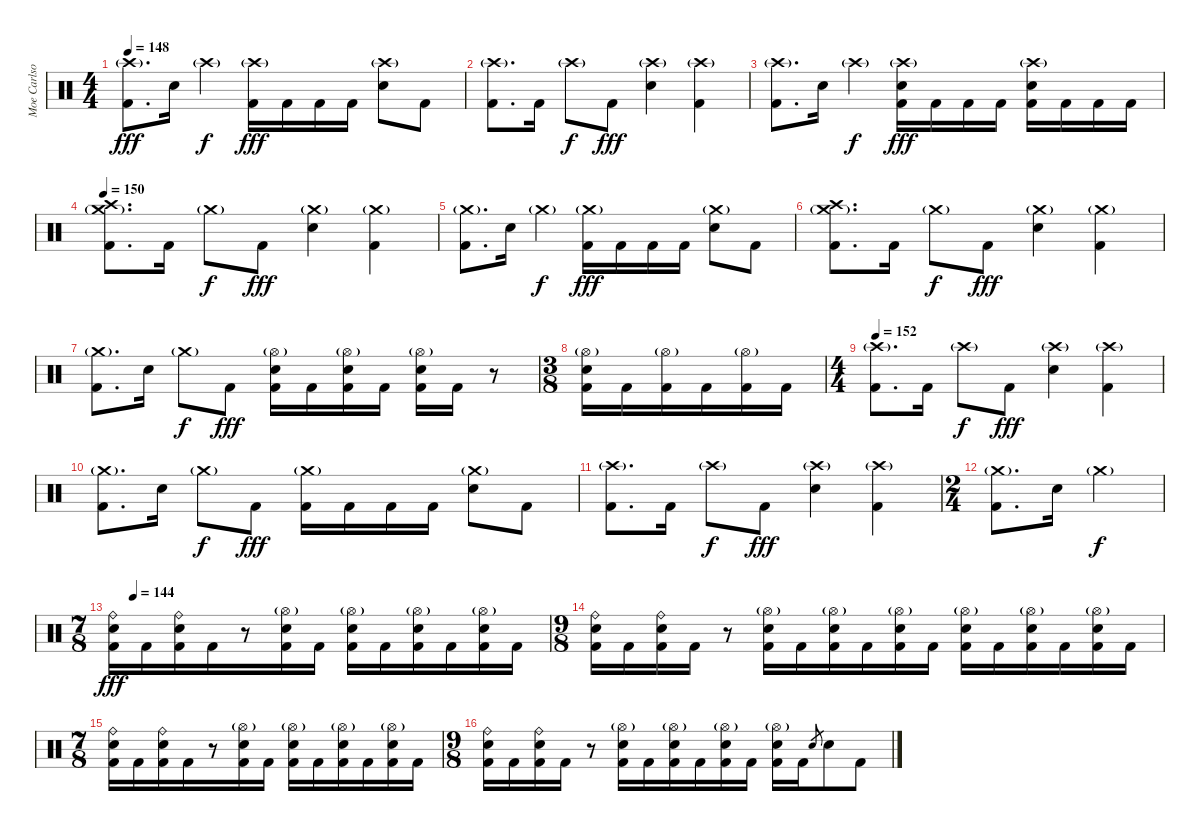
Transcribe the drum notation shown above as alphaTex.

\track ("Moe Carlson - Percussion" "Moe Carlso") {instrument percussion}
\staff {score}
\articulation defaults
\ts (4 4)
\tempo 148
\clef neutral
\ks c
("Crash high (hit)"{g} "Kick (hit) 2").8{d dy fff} "Electric Snare (hit)".16 "Crash high (hit)"{g}.4{dy f} ("Crash high (hit)"{g} "Kick (hit) 2").16{dy fff} "Kick (hit) 2".16 "Kick (hit) 2".16 "Kick (hit) 2".16 ("Crash high (hit)"{g} "Electric Snare (hit)").8 "Kick (hit) 2".8 |
("Crash high (hit)"{g} "Kick (hit) 2").8{d} "Kick (hit) 2".16 "Crash high (hit)"{g}.8{dy f} "Kick (hit) 2".8{dy fff} ("Crash high (hit)"{g} "Electric Snare (hit)").4 ("Crash high (hit)"{g} "Kick (hit) 2").4 |
("Crash high (hit)"{g} "Kick (hit) 2").8{d} "Electric Snare (hit)".16 "Crash high (hit)"{g}.4{dy f} ("Crash high (hit)"{g} "Electric Snare (hit)" "Kick (hit) 2").16{dy fff} "Kick (hit) 2".16 "Kick (hit) 2".16 "Kick (hit) 2".16 ("Crash high (hit)"{g} "Electric Snare (hit)" "Kick (hit) 2").16 "Kick (hit) 2".16 "Kick (hit) 2".16 "Kick (hit) 2".16 |
\tempo 150
("Crash medium (hit)"{g} "Crash high (hit)" "Kick (hit) 2").8{d} "Kick (hit) 2".16 "Crash medium (hit)"{g}.8{dy f} "Kick (hit) 2".8{dy fff} ("Crash medium (hit)"{g} "Electric Snare (hit)").4 ("Crash medium (hit)"{g} "Kick (hit) 2").4 |
("Crash medium (hit)"{g} "Kick (hit) 2").8{d} "Electric Snare (hit)".16 "Crash medium (hit)"{g}.4{dy f} ("Crash medium (hit)"{g} "Kick (hit) 2").16{dy fff} "Kick (hit) 2".16 "Kick (hit) 2".16 "Kick (hit) 2".16 ("Crash medium (hit)"{g} "Electric Snare (hit)").8 "Kick (hit) 2".8 |
("Crash medium (hit)"{g} "Crash high (hit)" "Kick (hit) 2").8{d} "Kick (hit) 2".16 "Crash medium (hit)"{g}.8{dy f} "Kick (hit) 2".8{dy fff} ("Crash medium (hit)"{g} "Electric Snare (hit)").4 ("Crash medium (hit)"{g} "Kick (hit) 2").4 |
("Crash medium (hit)"{g} "Kick (hit) 2").8{d} "Electric Snare (hit)".16 "Crash medium (hit)"{g}.8{dy f} "Kick (hit) 2".8{dy fff} ("Hi-Hat (open)"{g} "Electric Snare (hit)" "Kick (hit) 2").16 "Kick (hit) 2".16 ("Hi-Hat (open)"{g} "Electric Snare (hit)" "Kick (hit) 2").16 "Kick (hit) 2".16 ("Hi-Hat (open)"{g} "Electric Snare (hit)" "Kick (hit) 2").16 "Kick (hit) 2".16 r.8 |
\ts (3 8)
("Hi-Hat (open)"{g} "Electric Snare (hit)" "Kick (hit) 2").16 "Kick (hit) 2".16 ("Hi-Hat (open)"{g} "Kick (hit) 2").16 "Kick (hit) 2".16 ("Hi-Hat (open)"{g} "Kick (hit) 2").16 "Kick (hit) 2".16 |
\ts (4 4)
\tempo 152
("Crash high (hit)"{g} "Kick (hit) 2").8{d} "Kick (hit) 2".16 "Crash high (hit)"{g}.8{dy f} "Kick (hit) 2".8{dy fff} ("Crash high (hit)"{g} "Electric Snare (hit)").4 ("Crash high (hit)"{g} "Kick (hit) 2").4 |
("Crash medium (hit)"{g} "Kick (hit) 2").8{d} "Electric Snare (hit)".16 "Crash medium (hit)"{g}.8{dy f} "Kick (hit) 2".8{dy fff} ("Crash medium (hit)"{g} "Kick (hit) 2").16 "Kick (hit) 2".16 "Kick (hit) 2".16 "Kick (hit) 2".16 ("Crash medium (hit)"{g} "Electric Snare (hit)").8 "Kick (hit) 2".8 |
("Crash high (hit)"{g} "Kick (hit) 2").8{d} "Kick (hit) 2".16 "Crash high (hit)"{g}.8{dy f} "Kick (hit) 2".8{dy fff} ("Crash high (hit)"{g} "Electric Snare (hit)").4 ("Crash high (hit)"{g} "Kick (hit) 2").4 |
\ts (2 4)
("Crash medium (hit)"{g} "Kick (hit) 2").8{d} "Electric Snare (hit)".16 "Crash medium (hit)"{g}.4{dy f} |
\ts (7 8)
\tempo (144 0.047619047619047616)
("Ride (bell)" "Electric Snare (hit)" "Kick (hit) 2").16{dy fff} "Kick (hit) 2".16 ("Ride (bell)" "Electric Snare (hit)" "Kick (hit) 2").16 "Kick (hit) 2".16 r.8 ("Hi-Hat (open)"{g} "Electric Snare (hit)" "Kick (hit) 2").16 "Kick (hit) 2".16 ("Hi-Hat (open)"{g} "Electric Snare (hit)" "Kick (hit) 2").16 "Kick (hit) 2".16 ("Hi-Hat (open)"{g} "Electric Snare (hit)" "Kick (hit) 2").16 "Kick (hit) 2".16 ("Hi-Hat (open)"{g} "Electric Snare (hit)" "Kick (hit) 2").16 "Kick (hit) 2".16 |
\ts (9 8)
("Ride (bell)" "Electric Snare (hit)" "Kick (hit) 2").16 "Kick (hit) 2".16 ("Ride (bell)" "Electric Snare (hit)" "Kick (hit) 2").16 "Kick (hit) 2".16 r.8 ("Hi-Hat (open)"{g} "Electric Snare (hit)" "Kick (hit) 2").16 "Kick (hit) 2".16 ("Hi-Hat (open)"{g} "Electric Snare (hit)" "Kick (hit) 2").16 "Kick (hit) 2".16 ("Hi-Hat (open)"{g} "Electric Snare (hit)" "Kick (hit) 2").16 "Kick (hit) 2".16 ("Hi-Hat (open)"{g} "Electric Snare (hit)" "Kick (hit) 2").16 "Kick (hit) 2".16 ("Hi-Hat (open)"{g} "Electric Snare (hit)" "Kick (hit) 2").16 "Kick (hit) 2".16 ("Hi-Hat (open)"{g} "Electric Snare (hit)" "Kick (hit) 2").16 "Kick (hit) 2".16 |
\ts (7 8)
("Ride (bell)" "Electric Snare (hit)" "Kick (hit) 2").16 "Kick (hit) 2".16 ("Ride (bell)" "Electric Snare (hit)" "Kick (hit) 2").16 "Kick (hit) 2".16 r.8 ("Hi-Hat (open)"{g} "Electric Snare (hit)" "Kick (hit) 2").16 "Kick (hit) 2".16 ("Hi-Hat (open)"{g} "Electric Snare (hit)" "Kick (hit) 2").16 "Kick (hit) 2".16 ("Hi-Hat (open)"{g} "Electric Snare (hit)" "Kick (hit) 2").16 "Kick (hit) 2".16 ("Hi-Hat (open)"{g} "Electric Snare (hit)" "Kick (hit) 2").16 "Kick (hit) 2".16 |
\ts (9 8)
("Ride (bell)" "Electric Snare (hit)" "Kick (hit) 2").16 "Kick (hit) 2".16 ("Ride (bell)" "Electric Snare (hit)" "Kick (hit) 2").16 "Kick (hit) 2".16 r.8 ("Hi-Hat (open)"{g} "Electric Snare (hit)" "Kick (hit) 2").16 "Kick (hit) 2".16 ("Hi-Hat (open)"{g} "Electric Snare (hit)" "Kick (hit) 2").16 "Kick (hit) 2".16 ("Hi-Hat (open)"{g} "Electric Snare (hit)" "Kick (hit) 2").16 "Kick (hit) 2".16 ("Hi-Hat (open)"{g} "Electric Snare (hit)" "Kick (hit) 2").16 "Kick (hit) 2".16 "Electric Snare (hit)".8{gr} "Electric Snare (hit)".8 "Kick (hit) 2".8
